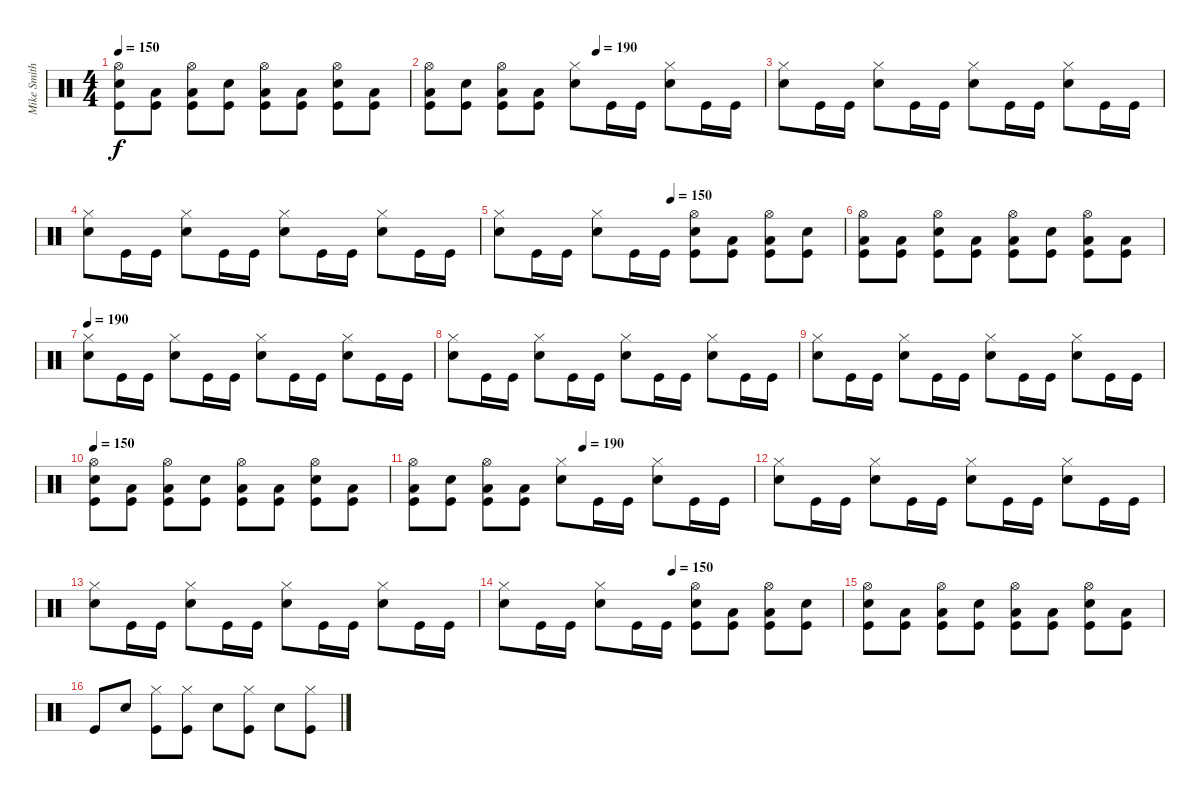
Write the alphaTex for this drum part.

\track ("Mike Smith" "Mike Smith") {instrument percussion}
\staff
\articulation defaults
\ts (4 4)
\tempo 150
\clef neutral
\ks c
("Hi-Hat (open)" "Snare (hit) 2" "Kick (hit)").8{dy f} ("Low Floor Tom (hit)" "Kick (hit)").8 ("Hi-Hat (open)" "Low Floor Tom (hit)" "Kick (hit)").8 ("Snare (hit) 2" "Kick (hit)").8 ("Hi-Hat (open)" "Low Floor Tom (hit)" "Kick (hit)").8 ("Low Floor Tom (hit)" "Kick (hit)").8 ("Hi-Hat (open)" "Snare (hit) 2" "Kick (hit)").8 ("Low Floor Tom (hit)" "Kick (hit)").8 |
\tempo (190 0.5)
("Hi-Hat (open)" "Low Floor Tom (hit)" "Kick (hit)").8 ("Snare (hit) 2" "Kick (hit)").8 ("Hi-Hat (open)" "Low Floor Tom (hit)" "Kick (hit)").8 ("Low Floor Tom (hit)" "Kick (hit)").8 ("Hi-Hat (closed)" "Snare (hit) 2").8 "Kick (hit)".16 "Kick (hit)".16 ("Hi-Hat (closed)" "Snare (hit) 2").8 "Kick (hit)".16 "Kick (hit)".16 |
("Hi-Hat (closed)" "Snare (hit) 2").8 "Kick (hit)".16 "Kick (hit)".16 ("Hi-Hat (closed)" "Snare (hit) 2").8 "Kick (hit)".16 "Kick (hit)".16 ("Hi-Hat (closed)" "Snare (hit) 2").8 "Kick (hit)".16 "Kick (hit)".16 ("Hi-Hat (closed)" "Snare (hit) 2").8 "Kick (hit)".16 "Kick (hit)".16 |
("Hi-Hat (closed)" "Snare (hit) 2").8 "Kick (hit)".16 "Kick (hit)".16 ("Hi-Hat (closed)" "Snare (hit) 2").8 "Kick (hit)".16 "Kick (hit)".16 ("Hi-Hat (closed)" "Snare (hit) 2").8 "Kick (hit)".16 "Kick (hit)".16 ("Hi-Hat (closed)" "Snare (hit) 2").8 "Kick (hit)".16 "Kick (hit)".16 |
\tempo (150 0.5)
("Hi-Hat (closed)" "Snare (hit) 2").8 "Kick (hit)".16 "Kick (hit)".16 ("Hi-Hat (closed)" "Snare (hit) 2").8 "Kick (hit)".16 "Kick (hit)".16 ("Hi-Hat (open)" "Snare (hit) 2" "Kick (hit)").8 ("Low Floor Tom (hit)" "Kick (hit)").8 ("Hi-Hat (open)" "Low Floor Tom (hit)" "Kick (hit)").8 ("Snare (hit) 2" "Kick (hit)").8 |
("Hi-Hat (open)" "Low Floor Tom (hit)" "Kick (hit)").8 ("Low Floor Tom (hit)" "Kick (hit)").8 ("Hi-Hat (open)" "Snare (hit) 2" "Kick (hit)").8 ("Low Floor Tom (hit)" "Kick (hit)").8 ("Hi-Hat (open)" "Low Floor Tom (hit)" "Kick (hit)").8 ("Snare (hit) 2" "Kick (hit)").8 ("Hi-Hat (open)" "Low Floor Tom (hit)" "Kick (hit)").8 ("Low Floor Tom (hit)" "Kick (hit)").8 |
\tempo 190
("Hi-Hat (closed)" "Snare (hit) 2").8 "Kick (hit)".16 "Kick (hit)".16 ("Hi-Hat (closed)" "Snare (hit) 2").8 "Kick (hit)".16 "Kick (hit)".16 ("Hi-Hat (closed)" "Snare (hit) 2").8 "Kick (hit)".16 "Kick (hit)".16 ("Hi-Hat (closed)" "Snare (hit) 2").8 "Kick (hit)".16 "Kick (hit)".16 |
("Hi-Hat (closed)" "Snare (hit) 2").8 "Kick (hit)".16 "Kick (hit)".16 ("Hi-Hat (closed)" "Snare (hit) 2").8 "Kick (hit)".16 "Kick (hit)".16 ("Hi-Hat (closed)" "Snare (hit) 2").8 "Kick (hit)".16 "Kick (hit)".16 ("Hi-Hat (closed)" "Snare (hit) 2").8 "Kick (hit)".16 "Kick (hit)".16 |
("Hi-Hat (closed)" "Snare (hit) 2").8 "Kick (hit)".16 "Kick (hit)".16 ("Hi-Hat (closed)" "Snare (hit) 2").8 "Kick (hit)".16 "Kick (hit)".16 ("Hi-Hat (closed)" "Snare (hit) 2").8 "Kick (hit)".16 "Kick (hit)".16 ("Hi-Hat (closed)" "Snare (hit) 2").8 "Kick (hit)".16 "Kick (hit)".16 |
\tempo 150
("Hi-Hat (open)" "Snare (hit) 2" "Kick (hit)").8 ("Low Floor Tom (hit)" "Kick (hit)").8 ("Hi-Hat (open)" "Low Floor Tom (hit)" "Kick (hit)").8 ("Snare (hit) 2" "Kick (hit)").8 ("Hi-Hat (open)" "Low Floor Tom (hit)" "Kick (hit)").8 ("Low Floor Tom (hit)" "Kick (hit)").8 ("Hi-Hat (open)" "Snare (hit) 2" "Kick (hit)").8 ("Low Floor Tom (hit)" "Kick (hit)").8 |
\tempo (190 0.5)
("Hi-Hat (open)" "Low Floor Tom (hit)" "Kick (hit)").8 ("Snare (hit) 2" "Kick (hit)").8 ("Hi-Hat (open)" "Low Floor Tom (hit)" "Kick (hit)").8 ("Low Floor Tom (hit)" "Kick (hit)").8 ("Hi-Hat (closed)" "Snare (hit) 2").8 "Kick (hit)".16 "Kick (hit)".16 ("Hi-Hat (closed)" "Snare (hit) 2").8 "Kick (hit)".16 "Kick (hit)".16 |
("Hi-Hat (closed)" "Snare (hit) 2").8 "Kick (hit)".16 "Kick (hit)".16 ("Hi-Hat (closed)" "Snare (hit) 2").8 "Kick (hit)".16 "Kick (hit)".16 ("Hi-Hat (closed)" "Snare (hit) 2").8 "Kick (hit)".16 "Kick (hit)".16 ("Hi-Hat (closed)" "Snare (hit) 2").8 "Kick (hit)".16 "Kick (hit)".16 |
("Hi-Hat (closed)" "Snare (hit) 2").8 "Kick (hit)".16 "Kick (hit)".16 ("Hi-Hat (closed)" "Snare (hit) 2").8 "Kick (hit)".16 "Kick (hit)".16 ("Hi-Hat (closed)" "Snare (hit) 2").8 "Kick (hit)".16 "Kick (hit)".16 ("Hi-Hat (closed)" "Snare (hit) 2").8 "Kick (hit)".16 "Kick (hit)".16 |
\tempo (150 0.5)
("Hi-Hat (closed)" "Snare (hit) 2").8 "Kick (hit)".16 "Kick (hit)".16 ("Hi-Hat (closed)" "Snare (hit) 2").8 "Kick (hit)".16 "Kick (hit)".16 ("Hi-Hat (open)" "Snare (hit) 2" "Kick (hit)").8 ("Low Floor Tom (hit)" "Kick (hit)").8 ("Hi-Hat (open)" "Low Floor Tom (hit)" "Kick (hit)").8 ("Snare (hit) 2" "Kick (hit)").8 |
("Hi-Hat (open)" "Snare (hit) 2" "Kick (hit)").8 ("Low Floor Tom (hit)" "Kick (hit)").8 ("Hi-Hat (open)" "Low Floor Tom (hit)" "Kick (hit)").8 ("Snare (hit) 2" "Kick (hit)").8 ("Hi-Hat (open)" "Low Floor Tom (hit)" "Kick (hit)").8 ("Low Floor Tom (hit)" "Kick (hit)").8 ("Hi-Hat (open)" "Snare (hit) 2" "Kick (hit)").8 ("Low Floor Tom (hit)" "Kick (hit)").8 |
"Kick (hit)".8 "Snare (hit) 2".8 ("Hi-Hat (closed)" "Kick (hit)").8 ("Hi-Hat (closed)" "Kick (hit)").8 "Snare (hit) 2".8 ("Hi-Hat (closed)" "Kick (hit)").8 "Snare (hit) 2".8 ("Hi-Hat (closed)" "Kick (hit)").8
